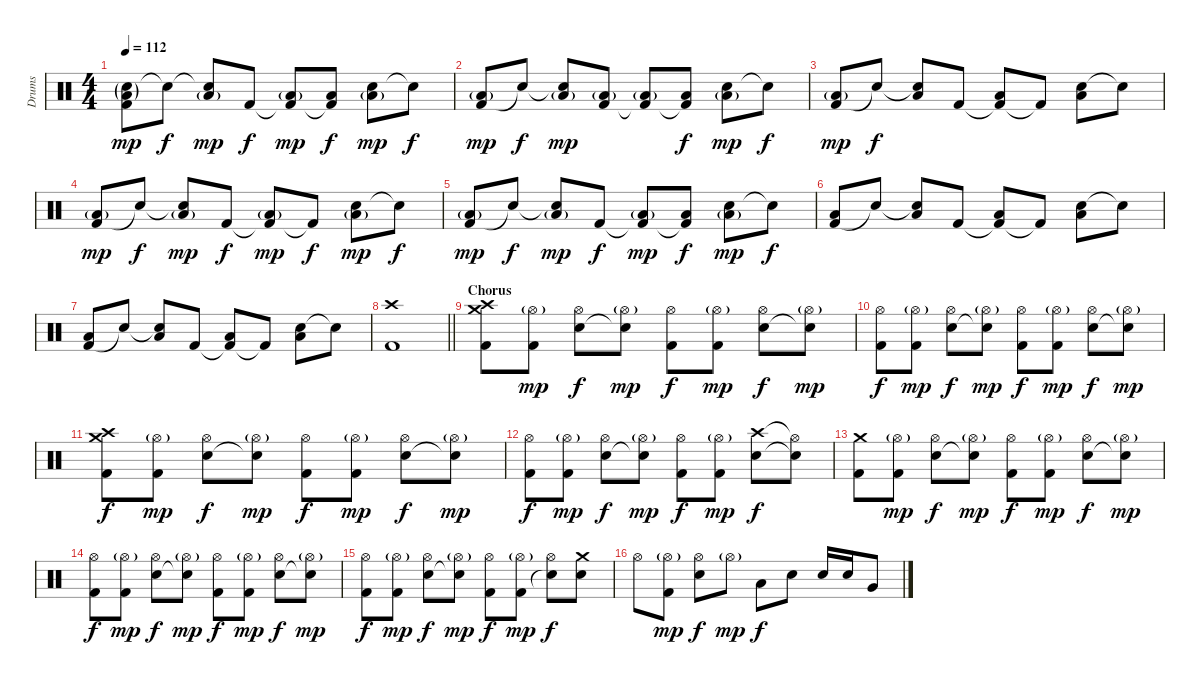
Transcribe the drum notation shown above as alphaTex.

\track ("Drums" "Drums") {instrument percussion}
\staff {score}
\articulation defaults
\ts (4 4)
\tempo 112
\clef neutral
\ks c
("Electric Snare (hit)"{g} "Kick (hit) 2" "Low Floor Tom (hit)"{g}).8{dy mp} "Snare (hit)"{t}.8{dy f} ("Snare (hit)"{t} "Low Floor Tom (hit)"{g}).8{dy mp} "Kick (hit) 2".8{dy f} ("Kick (hit) 2"{t} "Low Floor Tom (hit)"{g}).8{dy mp} ("Kick (hit) 2"{t} "Low Floor Tom (hit)").8{dy f} ("Electric Snare (hit)" "Low Floor Tom (hit)"{g}).8{dy mp} "Electric Snare (hit)"{t}.8{dy f} |
("Kick (hit) 2" "Low Floor Tom (hit)"{g}).8{dy mp} "Snare (hit)"{t}.8{dy f} ("Snare (hit)"{t} "Low Floor Tom (hit)"{g}).8{dy mp} ("Kick (hit) 2" "Low Floor Tom (hit)"{g}).8 ("Kick (hit) 2"{t} "Low Floor Tom (hit)"{g}).8 ("Kick (hit) 2"{t} "Low Floor Tom (hit)").8{dy f} ("Electric Snare (hit)" "Low Floor Tom (hit)"{g}).8{dy mp} "Electric Snare (hit)"{t}.8{dy f} |
("Kick (hit) 2" "Low Floor Tom (hit)"{g}).8{dy mp} "Snare (hit)"{t}.8{dy f} ("Snare (hit)"{t} "Low Floor Tom (hit)").8 "Kick (hit) 2".8 ("Kick (hit) 2"{t} "Low Floor Tom (hit)").8 "Kick (hit) 2"{t}.8 ("Electric Snare (hit)" "Low Floor Tom (hit)").8 "Electric Snare (hit)"{t}.8 |
("Kick (hit) 2" "Low Floor Tom (hit)"{g}).8{dy mp} "Snare (hit)"{t}.8{dy f} ("Snare (hit)"{t} "Low Floor Tom (hit)"{g}).8{dy mp} "Kick (hit) 2".8{dy f} ("Kick (hit) 2"{t} "Low Floor Tom (hit)"{g}).8{dy mp} "Kick (hit) 2"{t}.8{dy f} ("Electric Snare (hit)" "Low Floor Tom (hit)"{g}).8{dy mp} "Electric Snare (hit)"{t}.8{dy f} |
("Kick (hit) 2" "Low Floor Tom (hit)"{g}).8{dy mp} "Snare (hit)"{t}.8{dy f} ("Snare (hit)"{t} "Low Floor Tom (hit)"{g}).8{dy mp} "Kick (hit) 2".8{dy f} ("Kick (hit) 2"{t} "Low Floor Tom (hit)"{g}).8{dy mp} ("Kick (hit) 2"{t} "Low Floor Tom (hit)").8{dy f} ("Electric Snare (hit)" "Low Floor Tom (hit)"{g}).8{dy mp} "Electric Snare (hit)"{t}.8{dy f} |
("Kick (hit) 2" "Low Floor Tom (hit)").8 "Snare (hit)"{t}.8 ("Snare (hit)"{t} "Low Floor Tom (hit)").8 "Kick (hit) 2".8 ("Kick (hit) 2"{t} "Low Floor Tom (hit)").8 "Kick (hit) 2"{t}.8 ("Electric Snare (hit)" "Low Floor Tom (hit)").8 "Electric Snare (hit)"{t}.8 |
("Kick (hit) 2" "Low Floor Tom (hit)").8 "Snare (hit)"{t}.8 ("Snare (hit)"{t} "Low Floor Tom (hit)").8 "Kick (hit) 2".8 ("Kick (hit) 2"{t} "Low Floor Tom (hit)").8 "Kick (hit) 2"{t}.8 ("Electric Snare (hit)" "Low Floor Tom (hit)").8 "Electric Snare (hit)"{t}.8 |
\barLineRight lightlight
("Kick (hit) 2" "Crash high (hit)").1 |
\section ("" "Chorus")
("Kick (hit) 2" "Crash medium (hit)" "Crash high (hit)").8 ("Kick (hit) 2" "Hi-Hat (open)"{g}).8{dy mp} ("Electric Snare (hit)" "Hi-Hat (open)").8{dy f} ("Snare (hit)"{t} "Hi-Hat (open)"{g}).8{dy mp} ("Kick (hit) 2" "Hi-Hat (open)").8{dy f} ("Kick (hit) 2" "Hi-Hat (open)"{g}).8{dy mp} ("Electric Snare (hit)" "Hi-Hat (open)").8{dy f} ("Snare (hit)"{t} "Hi-Hat (open)"{g}).8{dy mp} |
("Kick (hit) 2" "Hi-Hat (open)").8{dy f} ("Kick (hit) 2" "Hi-Hat (open)"{g}).8{dy mp} ("Electric Snare (hit)" "Hi-Hat (open)").8{dy f} ("Snare (hit)"{t} "Hi-Hat (open)"{g}).8{dy mp} ("Kick (hit) 2" "Hi-Hat (open)").8{dy f} ("Kick (hit) 2" "Hi-Hat (open)"{g}).8{dy mp} ("Electric Snare (hit)" "Hi-Hat (open)").8{dy f} ("Snare (hit)"{t} "Hi-Hat (open)"{g}).8{dy mp} |
("Kick (hit) 2" "Crash medium (hit)" "Crash high (hit)").8{dy f} ("Kick (hit) 2" "Hi-Hat (open)"{g}).8{dy mp} ("Electric Snare (hit)" "Hi-Hat (open)").8{dy f} ("Snare (hit)"{t} "Hi-Hat (open)"{g}).8{dy mp} ("Kick (hit) 2" "Hi-Hat (open)").8{dy f} ("Kick (hit) 2" "Hi-Hat (open)"{g}).8{dy mp} ("Electric Snare (hit)" "Hi-Hat (open)").8{dy f} ("Snare (hit)"{t} "Hi-Hat (open)"{g}).8{dy mp} |
("Kick (hit) 2" "Hi-Hat (open)").8{dy f} ("Kick (hit) 2" "Hi-Hat (open)"{g}).8{dy mp} ("Electric Snare (hit)" "Hi-Hat (open)").8{dy f} ("Snare (hit)"{t} "Hi-Hat (open)"{g}).8{dy mp} ("Kick (hit) 2" "Hi-Hat (open)").8{dy f} ("Kick (hit) 2" "Hi-Hat (open)"{g}).8{dy mp} ("Electric Snare (hit)" "Crash high (hit)").8{dy f} ("Snare (hit)"{t} "Hi-Hat (open)"{t}).8 |
("Kick (hit) 2" "Crash medium (hit)").8 ("Kick (hit) 2" "Hi-Hat (open)"{g}).8{dy mp} ("Electric Snare (hit)" "Hi-Hat (open)").8{dy f} ("Snare (hit)"{t} "Hi-Hat (open)"{g}).8{dy mp} ("Kick (hit) 2" "Hi-Hat (open)").8{dy f} ("Kick (hit) 2" "Hi-Hat (open)"{g}).8{dy mp} ("Electric Snare (hit)" "Hi-Hat (open)").8{dy f} ("Snare (hit)"{t} "Hi-Hat (open)"{g}).8{dy mp} |
("Kick (hit) 2" "Hi-Hat (open)").8{dy f} ("Kick (hit) 2" "Hi-Hat (open)"{g}).8{dy mp} ("Electric Snare (hit)" "Hi-Hat (open)").8{dy f} ("Snare (hit)"{t} "Hi-Hat (open)"{g}).8{dy mp} ("Kick (hit) 2" "Hi-Hat (open)").8{dy f} ("Kick (hit) 2" "Hi-Hat (open)"{g}).8{dy mp} ("Electric Snare (hit)" "Hi-Hat (open)").8{dy f} ("Snare (hit)"{t} "Hi-Hat (open)"{g}).8{dy mp} |
("Kick (hit) 2" "Hi-Hat (open)").8{dy f} ("Kick (hit) 2" "Hi-Hat (open)"{g}).8{dy mp} ("Electric Snare (hit)" "Hi-Hat (open)").8{dy f} ("Snare (hit)"{t} "Hi-Hat (open)"{g}).8{dy mp} ("Kick (hit) 2" "Hi-Hat (open)").8{dy f} ("Kick (hit) 2" "Hi-Hat (open)"{g}).8{dy mp} ("Electric Snare (hit)"{t} "Hi-Hat (open)").8{dy f} ("Electric Snare (hit)" "Crash medium (hit)").8 |
"Hi-Hat (open)".8 ("Kick (hit) 2" "Hi-Hat (open)"{g}).8{dy mp} ("Electric Snare (hit)" "Hi-Hat (open)").8{dy f} "Hi-Hat (open)"{g}.8{dy mp} "Low Tom (hit)".8{dy f} "Electric Snare (hit)".8 "Electric Snare (hit)".16 "Electric Snare (hit)".16 "Very Low Tom (hit)".8
